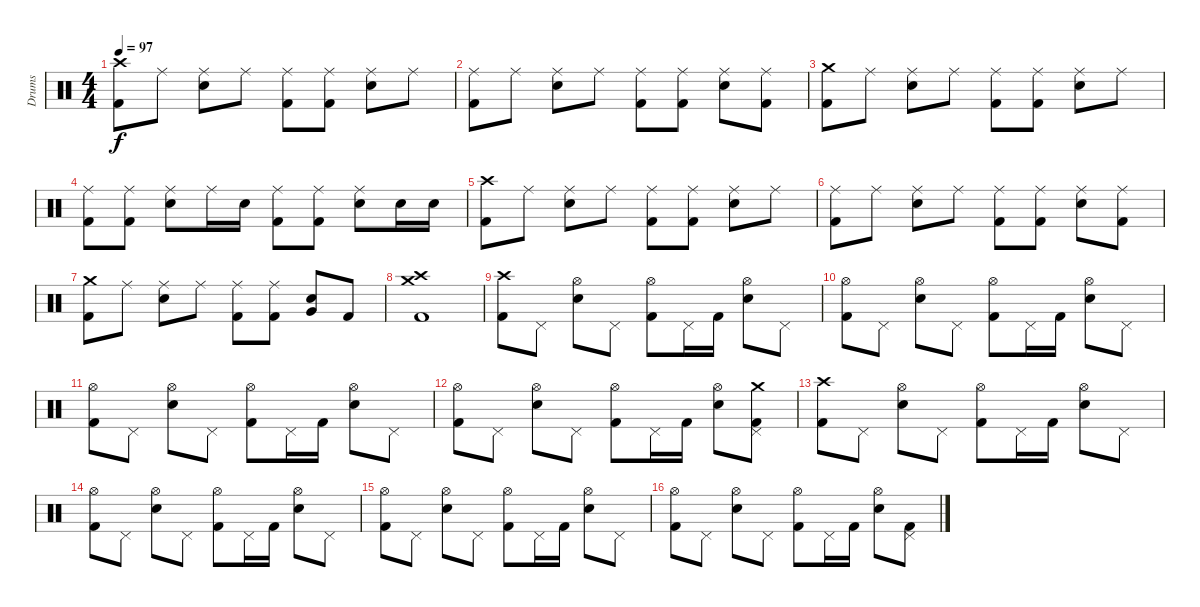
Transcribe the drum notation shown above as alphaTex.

\track ("Drums" "Drums") {instrument percussion}
\staff {score}
\articulation defaults
\ts (4 4)
\tempo 97
\clef neutral
\ks c
("Crash high (hit)" "Kick (hit) 2").8{dy f} "Ride (middle)".8 ("Ride (middle)" "Snare (hit) 2").8 "Ride (middle)".8 ("Ride (middle)" "Kick (hit) 2").8 ("Ride (middle)" "Kick (hit) 2").8 ("Ride (middle)" "Snare (hit) 2").8 "Ride (middle)".8 |
("Ride (middle)" "Kick (hit) 2").8 "Ride (middle)".8 ("Ride (middle)" "Snare (hit) 2").8 "Ride (middle)".8 ("Ride (middle)" "Kick (hit) 2").8 ("Ride (middle)" "Kick (hit) 2").8 ("Ride (middle)" "Snare (hit) 2").8 ("Ride (middle)" "Kick (hit) 2").8 |
("Crash medium (hit)" "Kick (hit) 2").8 "Ride (middle)".8 ("Ride (middle)" "Snare (hit) 2").8 "Ride (middle)".8 ("Ride (middle)" "Kick (hit) 2").8 ("Ride (middle)" "Kick (hit) 2").8 ("Ride (middle)" "Snare (hit) 2").8 "Ride (middle)".8 |
("Ride (middle)" "Kick (hit) 2").8 ("Ride (middle)" "Kick (hit) 2").8 ("Ride (middle)" "Snare (hit) 2").8 "Ride (middle)".16 "Snare (hit) 2".16 ("Ride (middle)" "Kick (hit) 2").8 ("Ride (middle)" "Kick (hit) 2").8 ("Ride (middle)" "Snare (hit) 2").8 "Snare (hit) 2".16 "Snare (hit) 2".16 |
("Crash high (hit)" "Kick (hit) 2").8 "Ride (middle)".8 ("Ride (middle)" "Snare (hit) 2").8 "Ride (middle)".8 ("Ride (middle)" "Kick (hit) 2").8 ("Ride (middle)" "Kick (hit) 2").8 ("Ride (middle)" "Snare (hit) 2").8 "Ride (middle)".8 |
("Ride (middle)" "Kick (hit) 2").8 "Ride (middle)".8 ("Ride (middle)" "Snare (hit) 2").8 "Ride (middle)".8 ("Ride (middle)" "Kick (hit) 2").8 ("Ride (middle)" "Kick (hit) 2").8 ("Ride (middle)" "Snare (hit) 2").8 ("Ride (middle)" "Kick (hit) 2").8 |
("Crash medium (hit)" "Kick (hit) 2").8 "Ride (middle)".8 ("Ride (middle)" "Snare (hit) 2").8 "Ride (middle)".8 ("Ride (middle)" "Kick (hit) 2").8 ("Ride (middle)" "Kick (hit) 2").8 ("Snare (hit) 2" "Very Low Tom (hit)").8 "Kick (hit) 2".8 |
("Crash high (hit)" "Crash medium (hit)" "Kick (hit) 2").1 |
("Crash high (hit)" "Kick (hit) 2").8 "Pedal Hi-Hat (hit)".8 ("Hi-Hat (open)" "Snare (hit) 2").8 "Pedal Hi-Hat (hit)".8 ("Hi-Hat (open)" "Kick (hit) 2").8 "Pedal Hi-Hat (hit)".16 "Kick (hit) 2".16 ("Hi-Hat (open)" "Snare (hit) 2").8 "Pedal Hi-Hat (hit)".8 |
("Hi-Hat (open)" "Kick (hit) 2").8 "Pedal Hi-Hat (hit)".8 ("Hi-Hat (open)" "Snare (hit) 2").8 "Pedal Hi-Hat (hit)".8 ("Hi-Hat (open)" "Kick (hit) 2").8 "Pedal Hi-Hat (hit)".16 "Kick (hit) 2".16 ("Hi-Hat (open)" "Snare (hit) 2").8 "Pedal Hi-Hat (hit)".8 |
("Hi-Hat (open)" "Kick (hit) 2").8 "Pedal Hi-Hat (hit)".8 ("Hi-Hat (open)" "Snare (hit) 2").8 "Pedal Hi-Hat (hit)".8 ("Hi-Hat (open)" "Kick (hit) 2").8 "Pedal Hi-Hat (hit)".16 "Kick (hit) 2".16 ("Hi-Hat (open)" "Snare (hit) 2").8 "Pedal Hi-Hat (hit)".8 |
("Hi-Hat (open)" "Kick (hit) 2").8 "Pedal Hi-Hat (hit)".8 ("Hi-Hat (open)" "Snare (hit) 2").8 "Pedal Hi-Hat (hit)".8 ("Hi-Hat (open)" "Kick (hit) 2").8 "Pedal Hi-Hat (hit)".16 "Kick (hit) 2".16 ("Hi-Hat (open)" "Snare (hit) 2").8 ("Crash medium (hit)" "Pedal Hi-Hat (hit)" "Kick (hit) 2").8 |
("Crash high (hit)" "Kick (hit) 2").8 "Pedal Hi-Hat (hit)".8 ("Hi-Hat (open)" "Snare (hit) 2").8 "Pedal Hi-Hat (hit)".8 ("Hi-Hat (open)" "Kick (hit) 2").8 "Pedal Hi-Hat (hit)".16 "Kick (hit) 2".16 ("Hi-Hat (open)" "Snare (hit) 2").8 "Pedal Hi-Hat (hit)".8 |
("Hi-Hat (open)" "Kick (hit) 2").8 "Pedal Hi-Hat (hit)".8 ("Hi-Hat (open)" "Snare (hit) 2").8 "Pedal Hi-Hat (hit)".8 ("Hi-Hat (open)" "Kick (hit) 2").8 "Pedal Hi-Hat (hit)".16 "Kick (hit) 2".16 ("Hi-Hat (open)" "Snare (hit) 2").8 "Pedal Hi-Hat (hit)".8 |
("Hi-Hat (open)" "Kick (hit) 2").8 "Pedal Hi-Hat (hit)".8 ("Hi-Hat (open)" "Snare (hit) 2").8 "Pedal Hi-Hat (hit)".8 ("Hi-Hat (open)" "Kick (hit) 2").8 "Pedal Hi-Hat (hit)".16 "Kick (hit) 2".16 ("Hi-Hat (open)" "Snare (hit) 2").8 "Pedal Hi-Hat (hit)".8 |
("Hi-Hat (open)" "Kick (hit) 2").8 "Pedal Hi-Hat (hit)".8 ("Hi-Hat (open)" "Snare (hit) 2").8 "Pedal Hi-Hat (hit)".8 ("Hi-Hat (open)" "Kick (hit) 2").8 "Pedal Hi-Hat (hit)".16 "Kick (hit) 2".16 ("Hi-Hat (open)" "Snare (hit) 2").8 ("Pedal Hi-Hat (hit)" "Kick (hit) 2").8
